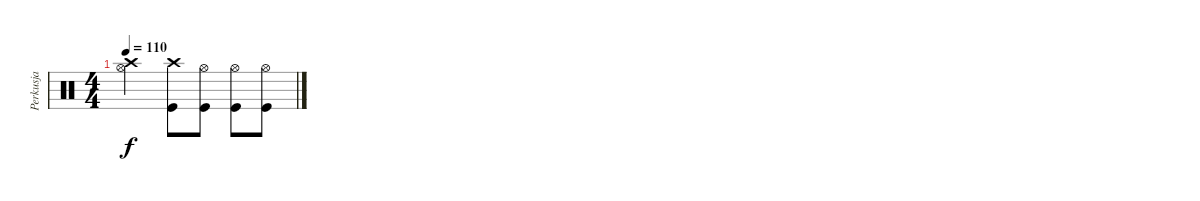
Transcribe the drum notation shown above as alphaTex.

\track ("Perkusja" "Perkusja") {instrument percussion}
\staff {score}
\articulation defaults
\ts (4 4)
\tempo 110
\clef neutral
\ks c
("Hi-Hat (open)" "Crash high (hit)").2{dy f} ("Crash high (hit)" "Kick (hit)").8 ("Hi-Hat (open)" "Kick (hit)").8 ("Hi-Hat (open)" "Kick (hit)").8 ("Hi-Hat (open)" "Kick (hit)").8
